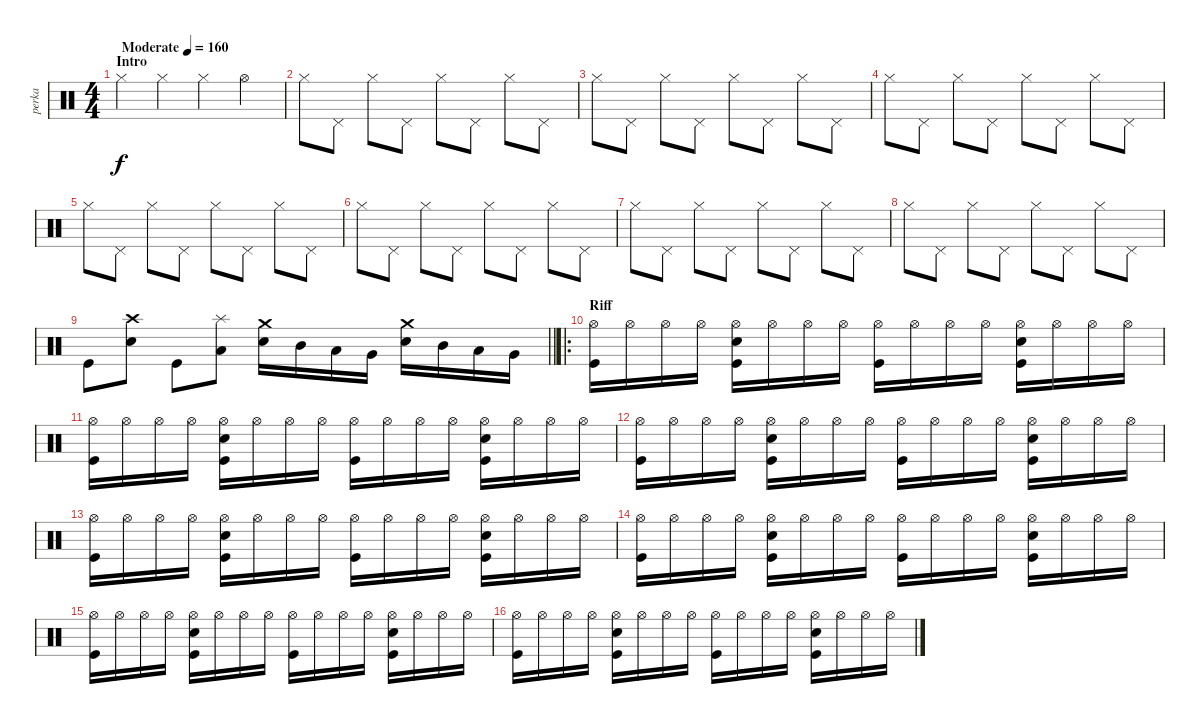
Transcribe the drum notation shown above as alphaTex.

\track ("perka" "perka") {instrument percussion}
\staff {score}
\articulation defaults
\ts (4 4)
\section ("" "Intro")
\tempo (160 "Moderate")
\clef neutral
\ks c "Hi-Hat (closed)".4{dy f} "Hi-Hat (closed)".4 "Hi-Hat (closed)".4 "Hi-Hat (open)".4
|
"Hi-Hat (closed)".8 "Pedal Hi-Hat (hit)".8 "Hi-Hat (closed)".8 "Pedal Hi-Hat (hit)".8 "Hi-Hat (closed)".8 "Pedal Hi-Hat (hit)".8 "Hi-Hat (closed)".8 "Pedal Hi-Hat (hit)".8 |
"Hi-Hat (closed)".8 "Pedal Hi-Hat (hit)".8 "Hi-Hat (closed)".8 "Pedal Hi-Hat (hit)".8 "Hi-Hat (closed)".8 "Pedal Hi-Hat (hit)".8 "Hi-Hat (closed)".8 "Pedal Hi-Hat (hit)".8 |
"Hi-Hat (closed)".8 "Pedal Hi-Hat (hit)".8 "Hi-Hat (closed)".8 "Pedal Hi-Hat (hit)".8 "Hi-Hat (closed)".8 "Pedal Hi-Hat (hit)".8 "Hi-Hat (closed)".8 "Pedal Hi-Hat (hit)".8 |
"Hi-Hat (closed)".8 "Pedal Hi-Hat (hit)".8 "Hi-Hat (closed)".8 "Pedal Hi-Hat (hit)".8 "Hi-Hat (closed)".8 "Pedal Hi-Hat (hit)".8 "Hi-Hat (closed)".8 "Pedal Hi-Hat (hit)".8 |
"Hi-Hat (closed)".8 "Pedal Hi-Hat (hit)".8 "Hi-Hat (closed)".8 "Pedal Hi-Hat (hit)".8 "Hi-Hat (closed)".8 "Pedal Hi-Hat (hit)".8 "Hi-Hat (closed)".8 "Pedal Hi-Hat (hit)".8 |
"Hi-Hat (closed)".8 "Pedal Hi-Hat (hit)".8 "Hi-Hat (closed)".8 "Pedal Hi-Hat (hit)".8 "Hi-Hat (closed)".8 "Pedal Hi-Hat (hit)".8 "Hi-Hat (closed)".8 "Pedal Hi-Hat (hit)".8 |
"Hi-Hat (closed)".8 "Pedal Hi-Hat (hit)".8 "Hi-Hat (closed)".8 "Pedal Hi-Hat (hit)".8 "Hi-Hat (closed)".8 "Pedal Hi-Hat (hit)".8 "Hi-Hat (closed)".8 "Pedal Hi-Hat (hit)".8 |
\barLineRight lightlight "Kick (hit)".8
("Crash high (hit)" "Snare (hit) 2").8 "Kick (hit)".8 ("Splash (hit)" "Low Tom (hit)").8 ("Crash medium (hit)" "Snare (hit) 2").16 "Mid Tom (hit)".16 "Low Tom (hit)".16 "Very Low Tom (hit)".16 ("Crash medium (hit)" "Snare (hit) 2").16 "Mid Tom (hit)".16 "Low Tom (hit)".16 "Very Low Tom (hit)".16 |
\ro
\section ("" "Riff")
("Hi-Hat (open)" "Kick (hit)").16 "Hi-Hat (open)".16 "Hi-Hat (open)".16 "Hi-Hat (open)".16 ("Hi-Hat (open)" "Snare (hit) 2" "Kick (hit)").16 "Hi-Hat (open)".16 "Hi-Hat (open)".16 "Hi-Hat (open)".16 ("Hi-Hat (open)" "Kick (hit)").16 "Hi-Hat (open)".16 "Hi-Hat (open)".16 "Hi-Hat (open)".16 ("Hi-Hat (open)" "Snare (hit) 2" "Kick (hit)").16 "Hi-Hat (open)".16 "Hi-Hat (open)".16 "Hi-Hat (open)".16 |
("Hi-Hat (open)" "Kick (hit)").16 "Hi-Hat (open)".16 "Hi-Hat (open)".16 "Hi-Hat (open)".16 ("Hi-Hat (open)" "Snare (hit) 2" "Kick (hit)").16 "Hi-Hat (open)".16 "Hi-Hat (open)".16 "Hi-Hat (open)".16 ("Hi-Hat (open)" "Kick (hit)").16 "Hi-Hat (open)".16 "Hi-Hat (open)".16 "Hi-Hat (open)".16 ("Hi-Hat (open)" "Snare (hit) 2" "Kick (hit)").16 "Hi-Hat (open)".16 "Hi-Hat (open)".16 "Hi-Hat (open)".16 |
("Hi-Hat (open)" "Kick (hit)").16 "Hi-Hat (open)".16 "Hi-Hat (open)".16 "Hi-Hat (open)".16 ("Hi-Hat (open)" "Snare (hit) 2" "Kick (hit)").16 "Hi-Hat (open)".16 "Hi-Hat (open)".16 "Hi-Hat (open)".16 ("Hi-Hat (open)" "Kick (hit)").16 "Hi-Hat (open)".16 "Hi-Hat (open)".16 "Hi-Hat (open)".16 ("Hi-Hat (open)" "Snare (hit) 2" "Kick (hit)").16 "Hi-Hat (open)".16 "Hi-Hat (open)".16 "Hi-Hat (open)".16 |
("Hi-Hat (open)" "Kick (hit)").16 "Hi-Hat (open)".16 "Hi-Hat (open)".16 "Hi-Hat (open)".16 ("Hi-Hat (open)" "Snare (hit) 2" "Kick (hit)").16 "Hi-Hat (open)".16 "Hi-Hat (open)".16 "Hi-Hat (open)".16 ("Hi-Hat (open)" "Kick (hit)").16 "Hi-Hat (open)".16 "Hi-Hat (open)".16 "Hi-Hat (open)".16 ("Hi-Hat (open)" "Snare (hit) 2" "Kick (hit)").16 "Hi-Hat (open)".16 "Hi-Hat (open)".16 "Hi-Hat (open)".16 |
("Hi-Hat (open)" "Kick (hit)").16 "Hi-Hat (open)".16 "Hi-Hat (open)".16 "Hi-Hat (open)".16 ("Hi-Hat (open)" "Snare (hit) 2" "Kick (hit)").16 "Hi-Hat (open)".16 "Hi-Hat (open)".16 "Hi-Hat (open)".16 ("Hi-Hat (open)" "Kick (hit)").16 "Hi-Hat (open)".16 "Hi-Hat (open)".16 "Hi-Hat (open)".16 ("Hi-Hat (open)" "Snare (hit) 2" "Kick (hit)").16 "Hi-Hat (open)".16 "Hi-Hat (open)".16 "Hi-Hat (open)".16 |
("Hi-Hat (open)" "Kick (hit)").16 "Hi-Hat (open)".16 "Hi-Hat (open)".16 "Hi-Hat (open)".16 ("Hi-Hat (open)" "Snare (hit) 2" "Kick (hit)").16 "Hi-Hat (open)".16 "Hi-Hat (open)".16 "Hi-Hat (open)".16 ("Hi-Hat (open)" "Kick (hit)").16 "Hi-Hat (open)".16 "Hi-Hat (open)".16 "Hi-Hat (open)".16 ("Hi-Hat (open)" "Snare (hit) 2" "Kick (hit)").16 "Hi-Hat (open)".16 "Hi-Hat (open)".16 "Hi-Hat (open)".16 |
("Hi-Hat (open)" "Kick (hit)").16 "Hi-Hat (open)".16 "Hi-Hat (open)".16 "Hi-Hat (open)".16 ("Hi-Hat (open)" "Snare (hit) 2" "Kick (hit)").16 "Hi-Hat (open)".16 "Hi-Hat (open)".16 "Hi-Hat (open)".16 ("Hi-Hat (open)" "Kick (hit)").16 "Hi-Hat (open)".16 "Hi-Hat (open)".16 "Hi-Hat (open)".16 ("Hi-Hat (open)" "Snare (hit) 2" "Kick (hit)").16 "Hi-Hat (open)".16 "Hi-Hat (open)".16 "Hi-Hat (open)".16
